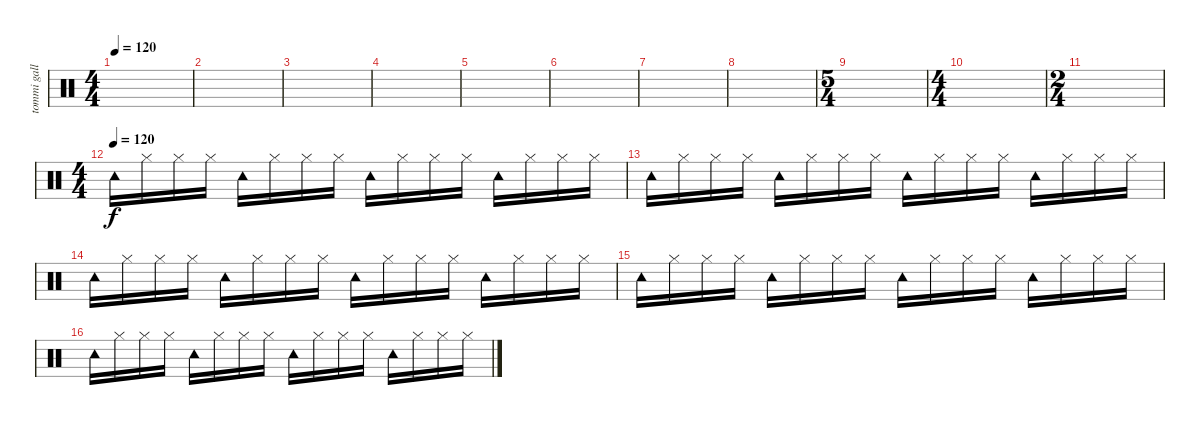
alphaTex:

\track ("tommi gallo" "tommi gall") {instrument percussion}
\staff {score}
\articulation defaults
\ts (4 4)
\tempo 120
\tempo 152
\tempo 120
\clef neutral
\ks c
|
|
|
|
|
|
|
|
\ts (5 4)
|
\ts (4 4)
|
\ts (2 4)
|
\ts (4 4)
\tempo (120)
"Tambourine (hit)".16 "Hi-Hat (closed)".16 "Hi-Hat (closed)".16 "Hi-Hat (closed)".16 "Tambourine (hit)".16 "Hi-Hat (closed)".16 "Hi-Hat (closed)".16 "Hi-Hat (closed)".16 "Tambourine (hit)".16 "Hi-Hat (closed)".16 "Hi-Hat (closed)".16 "Hi-Hat (closed)".16 "Tambourine (hit)".16 "Hi-Hat (closed)".16 "Hi-Hat (closed)".16 "Hi-Hat (closed)".16 |
"Tambourine (hit)".16 "Hi-Hat (closed)".16 "Hi-Hat (closed)".16 "Hi-Hat (closed)".16 "Tambourine (hit)".16 "Hi-Hat (closed)".16 "Hi-Hat (closed)".16 "Hi-Hat (closed)".16 "Tambourine (hit)".16 "Hi-Hat (closed)".16 "Hi-Hat (closed)".16 "Hi-Hat (closed)".16 "Tambourine (hit)".16 "Hi-Hat (closed)".16 "Hi-Hat (closed)".16 "Hi-Hat (closed)".16 |
"Tambourine (hit)".16 "Hi-Hat (closed)".16 "Hi-Hat (closed)".16 "Hi-Hat (closed)".16 "Tambourine (hit)".16 "Hi-Hat (closed)".16 "Hi-Hat (closed)".16 "Hi-Hat (closed)".16 "Tambourine (hit)".16 "Hi-Hat (closed)".16 "Hi-Hat (closed)".16 "Hi-Hat (closed)".16 "Tambourine (hit)".16 "Hi-Hat (closed)".16 "Hi-Hat (closed)".16 "Hi-Hat (closed)".16 |
"Tambourine (hit)".16 "Hi-Hat (closed)".16 "Hi-Hat (closed)".16 "Hi-Hat (closed)".16 "Tambourine (hit)".16 "Hi-Hat (closed)".16 "Hi-Hat (closed)".16 "Hi-Hat (closed)".16 "Tambourine (hit)".16 "Hi-Hat (closed)".16 "Hi-Hat (closed)".16 "Hi-Hat (closed)".16 "Tambourine (hit)".16 "Hi-Hat (closed)".16 "Hi-Hat (closed)".16 "Hi-Hat (closed)".16 |
"Tambourine (hit)".16 "Hi-Hat (closed)".16 "Hi-Hat (closed)".16 "Hi-Hat (closed)".16 "Tambourine (hit)".16 "Hi-Hat (closed)".16 "Hi-Hat (closed)".16 "Hi-Hat (closed)".16 "Tambourine (hit)".16 "Hi-Hat (closed)".16 "Hi-Hat (closed)".16 "Hi-Hat (closed)".16 "Tambourine (hit)".16 "Hi-Hat (closed)".16 "Hi-Hat (closed)".16 "Hi-Hat (closed)".16
